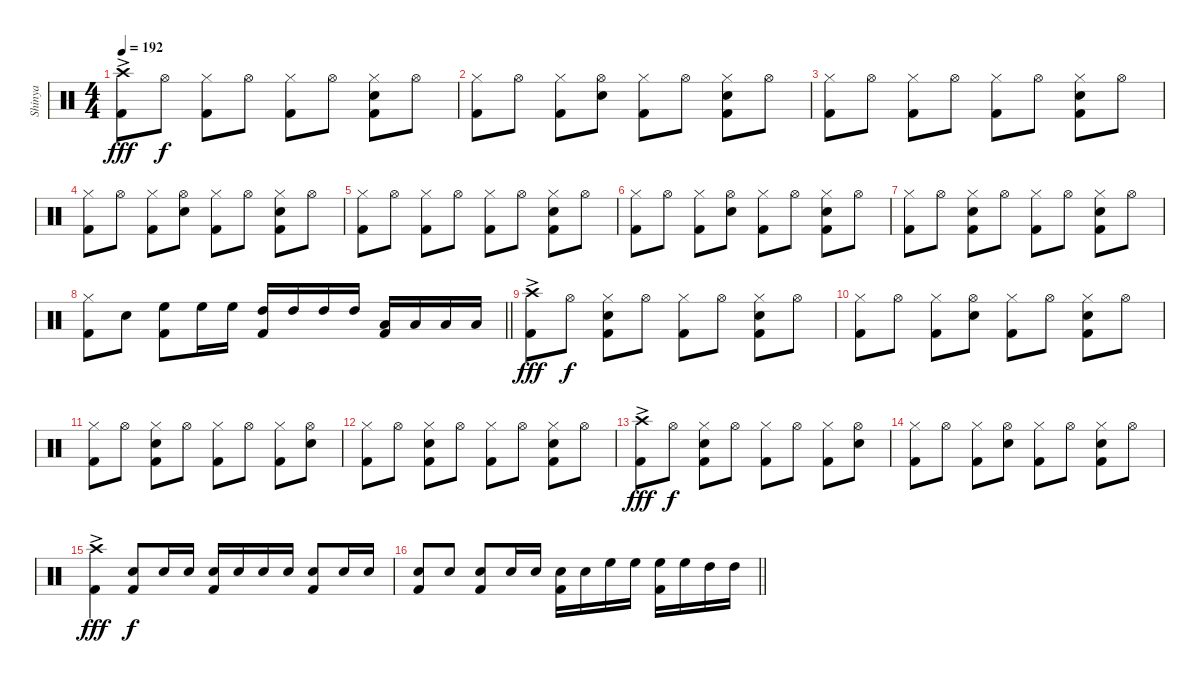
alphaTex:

\track ("Shinya" "Shinya") {instrument percussion}
\staff {score}
\articulation defaults
\ts (4 4)
\tempo 192
\clef neutral
\ks c
("Crash high (hit)"{ac} "Kick (hit) 2").8{dy fff} "Hi-Hat (open)".8{dy f} ("Hi-Hat (closed)" "Kick (hit) 2").8 "Hi-Hat (open)".8 ("Hi-Hat (closed)" "Kick (hit) 2").8 "Hi-Hat (open)".8 ("Hi-Hat (closed)" "Snare (hit) 2" "Kick (hit) 2").8 "Hi-Hat (open)".8 |
("Hi-Hat (closed)" "Kick (hit) 2").8 "Hi-Hat (open)".8 ("Hi-Hat (closed)" "Kick (hit) 2").8 ("Hi-Hat (open)" "Snare (hit) 2").8 ("Hi-Hat (closed)" "Kick (hit) 2").8 "Hi-Hat (open)".8 ("Hi-Hat (closed)" "Snare (hit) 2" "Kick (hit) 2").8 "Hi-Hat (open)".8 |
("Hi-Hat (closed)" "Kick (hit) 2").8 "Hi-Hat (open)".8 ("Hi-Hat (closed)" "Kick (hit) 2").8 "Hi-Hat (open)".8 ("Hi-Hat (closed)" "Kick (hit) 2").8 "Hi-Hat (open)".8 ("Hi-Hat (closed)" "Snare (hit) 2" "Kick (hit) 2").8 "Hi-Hat (open)".8 |
("Hi-Hat (closed)" "Kick (hit) 2").8 "Hi-Hat (open)".8 ("Hi-Hat (closed)" "Kick (hit) 2").8 ("Hi-Hat (open)" "Snare (hit) 2").8 ("Hi-Hat (closed)" "Kick (hit) 2").8 "Hi-Hat (open)".8 ("Hi-Hat (closed)" "Snare (hit) 2" "Kick (hit) 2").8 "Hi-Hat (open)".8 |
("Hi-Hat (closed)" "Kick (hit) 2").8 "Hi-Hat (open)".8 ("Hi-Hat (closed)" "Kick (hit) 2").8 "Hi-Hat (open)".8 ("Hi-Hat (closed)" "Kick (hit) 2").8 "Hi-Hat (open)".8 ("Hi-Hat (closed)" "Snare (hit) 2" "Kick (hit) 2").8 "Hi-Hat (open)".8 |
("Hi-Hat (closed)" "Kick (hit) 2").8 "Hi-Hat (open)".8 ("Hi-Hat (closed)" "Kick (hit) 2").8 ("Hi-Hat (open)" "Snare (hit) 2").8 ("Hi-Hat (closed)" "Kick (hit) 2").8 "Hi-Hat (open)".8 ("Hi-Hat (closed)" "Snare (hit) 2" "Kick (hit) 2").8 "Hi-Hat (open)".8 |
("Hi-Hat (closed)" "Kick (hit) 2").8 "Hi-Hat (open)".8 ("Hi-Hat (closed)" "Snare (hit) 2" "Kick (hit) 2").8 "Hi-Hat (open)".8 ("Hi-Hat (closed)" "Kick (hit) 2").8 "Hi-Hat (open)".8 ("Hi-Hat (closed)" "Snare (hit) 2" "Kick (hit) 2").8 "Hi-Hat (open)".8 |
\barLineRight lightlight
("Hi-Hat (closed)" "Kick (hit) 2").8 "Snare (hit) 2".8 ("High Floor Tom (hit)" "Kick (hit) 2").8 "High Floor Tom (hit)".16 "High Floor Tom (hit)".16 ("High Tom (hit)" "Kick (hit) 2").16 "High Tom (hit)".16 "High Tom (hit)".16 "High Tom (hit)".16 ("Low Tom (hit)" "Kick (hit) 2").16 "Low Tom (hit)".16 "Low Tom (hit)".16 "Low Tom (hit)".16 |
("Crash high (hit)"{ac} "Kick (hit) 2").8{dy fff} "Hi-Hat (open)".8{dy f} ("Hi-Hat (closed)" "Snare (hit) 2" "Kick (hit) 2").8 "Hi-Hat (open)".8 ("Hi-Hat (closed)" "Kick (hit) 2").8 "Hi-Hat (open)".8 ("Hi-Hat (closed)" "Snare (hit) 2" "Kick (hit) 2").8 "Hi-Hat (open)".8 |
("Hi-Hat (closed)" "Kick (hit) 2").8 "Hi-Hat (open)".8 ("Hi-Hat (closed)" "Kick (hit) 2").8 ("Hi-Hat (open)" "Snare (hit) 2").8 ("Hi-Hat (closed)" "Kick (hit) 2").8 "Hi-Hat (open)".8 ("Hi-Hat (closed)" "Snare (hit) 2" "Kick (hit) 2").8 "Hi-Hat (open)".8 |
("Hi-Hat (closed)" "Kick (hit) 2").8 "Hi-Hat (open)".8 ("Hi-Hat (closed)" "Snare (hit) 2" "Kick (hit) 2").8 "Hi-Hat (open)".8 ("Hi-Hat (closed)" "Kick (hit) 2").8 "Hi-Hat (open)".8 ("Hi-Hat (closed)" "Kick (hit) 2").8 ("Hi-Hat (open)" "Snare (hit) 2").8 |
("Hi-Hat (closed)" "Kick (hit) 2").8 "Hi-Hat (open)".8 ("Hi-Hat (closed)" "Snare (hit) 2" "Kick (hit) 2").8 "Hi-Hat (open)".8 ("Hi-Hat (closed)" "Kick (hit) 2").8 "Hi-Hat (open)".8 ("Hi-Hat (closed)" "Snare (hit) 2" "Kick (hit) 2").8 "Hi-Hat (open)".8 |
("Crash high (hit)"{ac} "Kick (hit) 2").8{dy fff} "Hi-Hat (open)".8{dy f} ("Hi-Hat (closed)" "Snare (hit) 2" "Kick (hit) 2").8 "Hi-Hat (open)".8 ("Hi-Hat (closed)" "Kick (hit) 2").8 "Hi-Hat (open)".8 ("Hi-Hat (closed)" "Kick (hit) 2").8 ("Hi-Hat (open)" "Snare (hit) 2").8 |
("Hi-Hat (closed)" "Kick (hit) 2").8 "Hi-Hat (open)".8 ("Hi-Hat (closed)" "Kick (hit) 2").8 ("Hi-Hat (open)" "Snare (hit) 2").8 ("Hi-Hat (closed)" "Kick (hit) 2").8 "Hi-Hat (open)".8 ("Hi-Hat (closed)" "Snare (hit) 2" "Kick (hit) 2").8 "Hi-Hat (open)".8 |
("Crash high (hit)"{ac} "Kick (hit) 2").4{dy fff} ("Snare (hit) 2" "Kick (hit) 2").8{dy f} "Snare (hit) 2".16 "Snare (hit) 2".16 ("Snare (hit) 2" "Kick (hit) 2").16 "Snare (hit) 2".16 "Snare (hit) 2".16 "Snare (hit) 2".16 ("Snare (hit) 2" "Kick (hit) 2").8 "Snare (hit) 2".16 "Snare (hit) 2".16 |
\barLineRight lightlight
("Snare (hit) 2" "Kick (hit) 2").8 "Snare (hit) 2".8 ("Snare (hit) 2" "Kick (hit) 2").8 "Snare (hit) 2".16 "Snare (hit) 2".16 ("Snare (hit) 2" "Kick (hit) 2").16 "Snare (hit) 2".16 "High Floor Tom (hit)".16 "High Floor Tom (hit)".16 ("High Floor Tom (hit)" "Kick (hit) 2").16 "High Floor Tom (hit)".16 "High Tom (hit)".16 "High Tom (hit)".16
